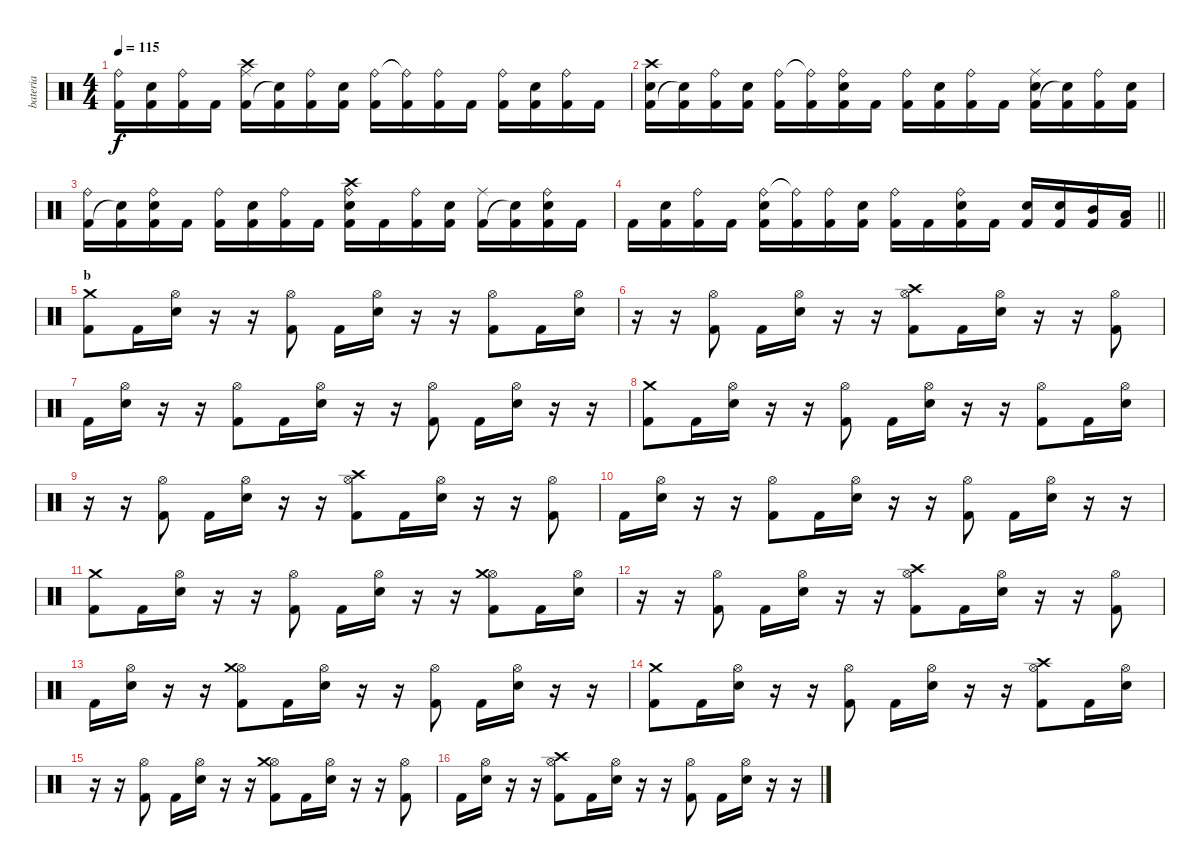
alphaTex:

\track ("bateria" "bateria") {instrument percussion}
\staff {score}
\articulation defaults
\ts (4 4)
\tempo 115
\clef neutral
\ks c
("Ride (bell)" "Kick (hit) 2").16{dy f} ("Electric Snare (hit)" "Kick (hit) 2").16 ("Kick (hit) 2" "Ride (bell)").16 "Kick (hit) 2".16 ("Ride (middle)" "Kick (hit) 2" "Crash high (hit)").16 ("Kick (hit) 2" "Snare (hit)"{t}).16 ("Ride (bell)" "Kick (hit) 2").16 ("Electric Snare (hit)" "Kick (hit) 2").16 ("Ride (bell)" "Kick (hit) 2").16 ("Ride (bell)"{t} "Kick (hit) 2").16 ("Kick (hit) 2" "Ride (bell)").16 "Kick (hit) 2".16 ("Kick (hit) 2" "Ride (bell)").16 ("Kick (hit) 2" "Electric Snare (hit)").16 ("Kick (hit) 2" "Ride (bell)").16 "Kick (hit) 2".16 |
("Crash high (hit)" "Kick (hit) 2" "Electric Snare (hit)").16 ("Kick (hit) 2" "Snare (hit)"{t}).16 ("Ride (bell)" "Kick (hit) 2").16 ("Electric Snare (hit)" "Kick (hit) 2").16 ("Ride (bell)" "Kick (hit) 2").16 ("Ride (bell)"{t} "Kick (hit) 2").16 ("Kick (hit) 2" "Ride (bell)" "Electric Snare (hit)").16 "Kick (hit) 2".16 ("Ride (bell)" "Kick (hit) 2").16 ("Electric Snare (hit)" "Kick (hit) 2").16 ("Kick (hit) 2" "Ride (bell)").16 "Kick (hit) 2".16 ("Ride (middle)" "Kick (hit) 2" "Electric Snare (hit)").16 ("Kick (hit) 2" "Snare (hit)"{t}).16 ("Ride (bell)" "Kick (hit) 2").16 ("Electric Snare (hit)" "Kick (hit) 2").16 |
("Ride (bell)" "Kick (hit) 2").16 ("Kick (hit) 2" "Snare (hit)"{t}).16 ("Ride (bell)" "Kick (hit) 2" "Electric Snare (hit)").16 "Kick (hit) 2".16 ("Ride (bell)" "Kick (hit) 2").16 ("Electric Snare (hit)" "Kick (hit) 2").16 ("Kick (hit) 2" "Ride (bell)").16 "Kick (hit) 2".16 ("Ride (bell)" "Kick (hit) 2" "Electric Snare (hit)" "Crash high (hit)").16 "Kick (hit) 2".16 ("Kick (hit) 2" "Ride (bell)").16 ("Kick (hit) 2" "Electric Snare (hit)").16 ("Ride (middle)" "Kick (hit) 2").16 ("Kick (hit) 2" "Snare (hit)"{t}).16 ("Ride (bell)" "Kick (hit) 2" "Electric Snare (hit)").16 "Kick (hit) 2".16 |
\barLineRight lightlight "Kick (hit) 2".16
("Kick (hit) 2" "Electric Snare (hit)").16 ("Ride (bell)" "Kick (hit) 2").16 "Kick (hit) 2".16 ("Ride (bell)" "Kick (hit) 2" "Electric Snare (hit)").16 ("Ride (bell)"{t} "Kick (hit) 2").16 ("Kick (hit) 2" "Ride (bell)").16 ("Electric Snare (hit)" "Kick (hit) 2").16 ("Ride (bell)" "Kick (hit) 2").16 "Kick (hit) 2".16 ("Kick (hit) 2" "Ride (bell)" "Electric Snare (hit)").16 "Kick (hit) 2".16 ("Electric Snare (hit)" "Kick (hit) 2").16 ("Kick (hit) 2" "Electric Snare (hit)").16 ("Mid Tom (hit)" "Kick (hit) 2").16 ("Low Tom (hit)" "Kick (hit) 2").16 |
\section ("" "b")
("Kick (hit) 2" "Crash medium (hit)").8 "Kick (hit) 2".16 ("Electric Snare (hit)" "Hi-Hat (open)").16 r.16 r.16 ("Kick (hit) 2" "Hi-Hat (open)").8 "Kick (hit) 2".16 ("Hi-Hat (open)" "Electric Snare (hit)").16 r.16 r.16 ("Kick (hit) 2" "Hi-Hat (open)").8 "Kick (hit) 2".16 ("Hi-Hat (open)" "Electric Snare (hit)").16 |
r.16 r.16 ("Kick (hit) 2" "Hi-Hat (open)").8 "Kick (hit) 2".16 ("Hi-Hat (open)" "Electric Snare (hit)").16 r.16 r.16 ("Kick (hit) 2" "Hi-Hat (open)" "Crash high (hit)").8 "Kick (hit) 2".16 ("Hi-Hat (open)" "Electric Snare (hit)").16 r.16 r.16 ("Kick (hit) 2" "Hi-Hat (open)").8 |
"Kick (hit) 2".16 ("Electric Snare (hit)" "Hi-Hat (open)").16 r.16 r.16 ("Kick (hit) 2" "Hi-Hat (open)").8 "Kick (hit) 2".16 ("Hi-Hat (open)" "Electric Snare (hit)").16 r.16 r.16 ("Kick (hit) 2" "Hi-Hat (open)").8 "Kick (hit) 2".16 ("Hi-Hat (open)" "Electric Snare (hit)").16 r.16 r.16 |
("Kick (hit) 2" "Crash medium (hit)").8 "Kick (hit) 2".16 ("Electric Snare (hit)" "Hi-Hat (open)").16 r.16 r.16 ("Kick (hit) 2" "Hi-Hat (open)").8 "Kick (hit) 2".16 ("Hi-Hat (open)" "Electric Snare (hit)").16 r.16 r.16 ("Kick (hit) 2" "Hi-Hat (open)").8 "Kick (hit) 2".16 ("Hi-Hat (open)" "Electric Snare (hit)").16 |
r.16 r.16 ("Kick (hit) 2" "Hi-Hat (open)").8 "Kick (hit) 2".16 ("Hi-Hat (open)" "Electric Snare (hit)").16 r.16 r.16 ("Kick (hit) 2" "Hi-Hat (open)" "Crash high (hit)").8 "Kick (hit) 2".16 ("Hi-Hat (open)" "Electric Snare (hit)").16 r.16 r.16 ("Kick (hit) 2" "Hi-Hat (open)").8 |
"Kick (hit) 2".16 ("Electric Snare (hit)" "Hi-Hat (open)").16 r.16 r.16 ("Kick (hit) 2" "Hi-Hat (open)").8 "Kick (hit) 2".16 ("Hi-Hat (open)" "Electric Snare (hit)").16 r.16 r.16 ("Kick (hit) 2" "Hi-Hat (open)").8 "Kick (hit) 2".16 ("Hi-Hat (open)" "Electric Snare (hit)").16 r.16 r.16 |
("Kick (hit) 2" "Crash medium (hit)").8 "Kick (hit) 2".16 ("Electric Snare (hit)" "Hi-Hat (open)").16 r.16 r.16 ("Kick (hit) 2" "Hi-Hat (open)").8 "Kick (hit) 2".16 ("Hi-Hat (open)" "Electric Snare (hit)").16 r.16 r.16 ("Kick (hit) 2" "Hi-Hat (open)" "Crash medium (hit)").8 "Kick (hit) 2".16 ("Hi-Hat (open)" "Electric Snare (hit)").16 |
r.16 r.16 ("Kick (hit) 2" "Hi-Hat (open)").8 "Kick (hit) 2".16 ("Hi-Hat (open)" "Electric Snare (hit)").16 r.16 r.16 ("Kick (hit) 2" "Hi-Hat (open)" "Crash high (hit)").8 "Kick (hit) 2".16 ("Hi-Hat (open)" "Electric Snare (hit)").16 r.16 r.16 ("Kick (hit) 2" "Hi-Hat (open)").8 |
"Kick (hit) 2".16 ("Electric Snare (hit)" "Hi-Hat (open)").16 r.16 r.16 ("Kick (hit) 2" "Hi-Hat (open)" "Crash medium (hit)").8 "Kick (hit) 2".16 ("Hi-Hat (open)" "Electric Snare (hit)").16 r.16 r.16 ("Kick (hit) 2" "Hi-Hat (open)").8 "Kick (hit) 2".16 ("Hi-Hat (open)" "Electric Snare (hit)").16 r.16 r.16 |
("Kick (hit) 2" "Crash medium (hit)").8 "Kick (hit) 2".16 ("Electric Snare (hit)" "Hi-Hat (open)").16 r.16 r.16 ("Kick (hit) 2" "Hi-Hat (open)").8 "Kick (hit) 2".16 ("Hi-Hat (open)" "Electric Snare (hit)").16 r.16 r.16 ("Kick (hit) 2" "Hi-Hat (open)" "Crash high (hit)").8 "Kick (hit) 2".16 ("Hi-Hat (open)" "Electric Snare (hit)").16 |
r.16 r.16 ("Kick (hit) 2" "Hi-Hat (open)").8 "Kick (hit) 2".16 ("Hi-Hat (open)" "Electric Snare (hit)").16 r.16 r.16 ("Kick (hit) 2" "Hi-Hat (open)" "Crash medium (hit)").8 "Kick (hit) 2".16 ("Hi-Hat (open)" "Electric Snare (hit)").16 r.16 r.16 ("Kick (hit) 2" "Hi-Hat (open)").8 |
"Kick (hit) 2".16 ("Electric Snare (hit)" "Hi-Hat (open)").16 r.16 r.16 ("Kick (hit) 2" "Hi-Hat (open)" "Crash high (hit)").8 "Kick (hit) 2".16 ("Hi-Hat (open)" "Electric Snare (hit)").16 r.16 r.16 ("Kick (hit) 2" "Hi-Hat (open)").8 "Kick (hit) 2".16 ("Hi-Hat (open)" "Electric Snare (hit)").16 r.16 r.16
